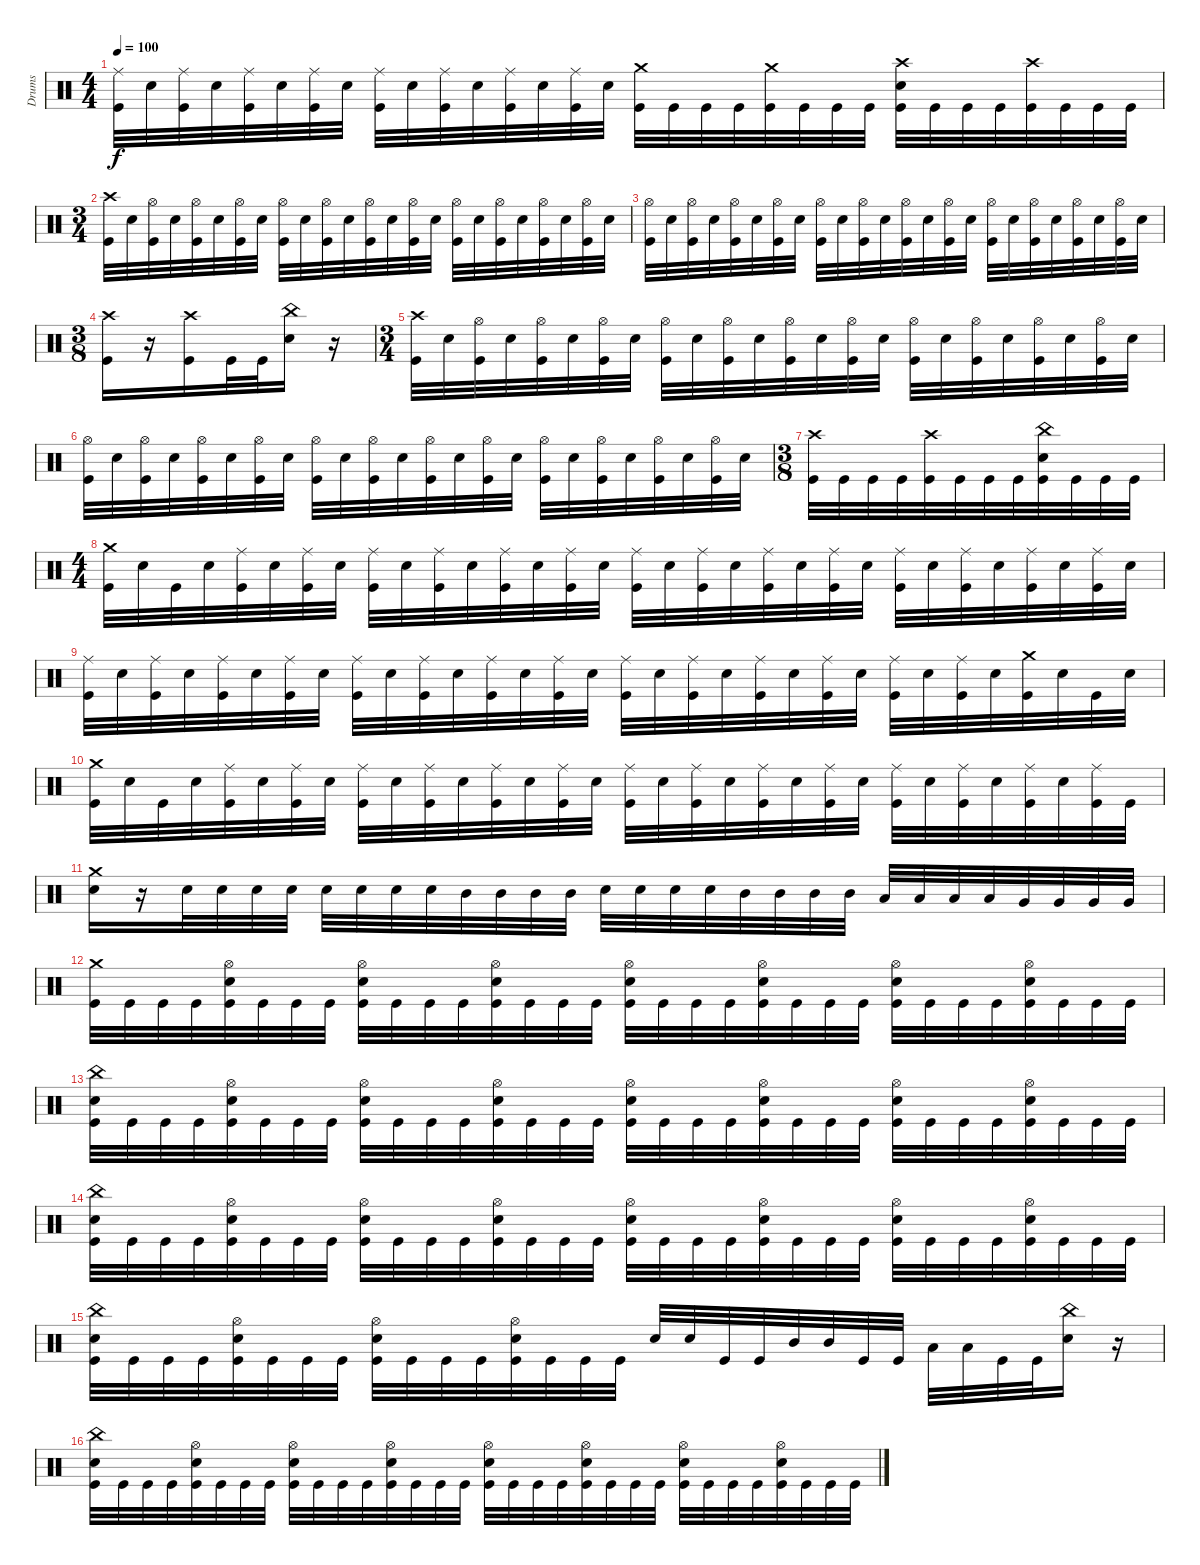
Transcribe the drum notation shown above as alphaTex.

\track ("Drums" "Drums") {instrument percussion}
\staff {score}
\articulation defaults
\ts (4 4)
\tempo 100
\clef neutral
\ks c
("Ride (middle)" "Kick (hit)").32{dy f} "Snare (hit) 2".32 ("Ride (middle)" "Kick (hit)").32 "Snare (hit) 2".32 ("Ride (middle)" "Kick (hit)").32 "Snare (hit) 2".32 ("Ride (middle)" "Kick (hit)").32 "Snare (hit) 2".32 ("Ride (middle)" "Kick (hit)").32 "Snare (hit) 2".32 ("Ride (middle)" "Kick (hit)").32 "Snare (hit) 2".32 ("Ride (middle)" "Kick (hit)").32 "Snare (hit) 2".32 ("Ride (middle)" "Kick (hit)").32 "Snare (hit) 2".32 ("Crash medium (hit)" "Kick (hit)").32 "Kick (hit)".32 "Kick (hit)".32 "Kick (hit)".32 ("Crash medium (hit)" "Kick (hit)").32 "Kick (hit)".32 "Kick (hit)".32 "Kick (hit)".32 ("Crash high (hit)" "Snare (hit) 2" "Kick (hit)").32 "Kick (hit)".32 "Kick (hit)".32 "Kick (hit)".32 ("Crash high (hit)" "Kick (hit)").32 "Kick (hit)".32 "Kick (hit)".32 "Kick (hit)".32 |
\ts (3 4)
("Crash high (hit)" "Kick (hit)").32 "Snare (hit) 2".32 ("Hi-Hat (open)" "Kick (hit)").32 "Snare (hit) 2".32 ("Hi-Hat (open)" "Kick (hit)").32 "Snare (hit) 2".32 ("Hi-Hat (open)" "Kick (hit)").32 "Snare (hit) 2".32 ("Hi-Hat (open)" "Kick (hit)").32 "Snare (hit) 2".32 ("Hi-Hat (open)" "Kick (hit)").32 "Snare (hit) 2".32 ("Hi-Hat (open)" "Kick (hit)").32 "Snare (hit) 2".32 ("Hi-Hat (open)" "Kick (hit)").32 "Snare (hit) 2".32 ("Hi-Hat (open)" "Kick (hit)").32 "Snare (hit) 2".32 ("Hi-Hat (open)" "Kick (hit)").32 "Snare (hit) 2".32 ("Hi-Hat (open)" "Kick (hit)").32 "Snare (hit) 2".32 ("Hi-Hat (open)" "Kick (hit)").32 "Snare (hit) 2".32 |
("Hi-Hat (open)" "Kick (hit)").32 "Snare (hit) 2".32 ("Hi-Hat (open)" "Kick (hit)").32 "Snare (hit) 2".32 ("Hi-Hat (open)" "Kick (hit)").32 "Snare (hit) 2".32 ("Hi-Hat (open)" "Kick (hit)").32 "Snare (hit) 2".32 ("Hi-Hat (open)" "Kick (hit)").32 "Snare (hit) 2".32 ("Hi-Hat (open)" "Kick (hit)").32 "Snare (hit) 2".32 ("Hi-Hat (open)" "Kick (hit)").32 "Snare (hit) 2".32 ("Hi-Hat (open)" "Kick (hit)").32 "Snare (hit) 2".32 ("Hi-Hat (open)" "Kick (hit)").32 "Snare (hit) 2".32 ("Hi-Hat (open)" "Kick (hit)").32 "Snare (hit) 2".32 ("Hi-Hat (open)" "Kick (hit)").32 "Snare (hit) 2".32 ("Hi-Hat (open)" "Kick (hit)").32 "Snare (hit) 2".32 |
\ts (3 8)
("Crash high (hit)" "Kick (hit)").16 r.16 ("Crash high (hit)" "Kick (hit)").16 "Kick (hit)".32 "Kick (hit)".32 ("China (hit)" "Snare (hit) 2").16 r.16 |
\ts (3 4)
("Crash high (hit)" "Kick (hit)").32 "Snare (hit) 2".32 ("Hi-Hat (open)" "Kick (hit)").32 "Snare (hit) 2".32 ("Hi-Hat (open)" "Kick (hit)").32 "Snare (hit) 2".32 ("Hi-Hat (open)" "Kick (hit)").32 "Snare (hit) 2".32 ("Hi-Hat (open)" "Kick (hit)").32 "Snare (hit) 2".32 ("Hi-Hat (open)" "Kick (hit)").32 "Snare (hit) 2".32 ("Hi-Hat (open)" "Kick (hit)").32 "Snare (hit) 2".32 ("Hi-Hat (open)" "Kick (hit)").32 "Snare (hit) 2".32 ("Hi-Hat (open)" "Kick (hit)").32 "Snare (hit) 2".32 ("Hi-Hat (open)" "Kick (hit)").32 "Snare (hit) 2".32 ("Hi-Hat (open)" "Kick (hit)").32 "Snare (hit) 2".32 ("Hi-Hat (open)" "Kick (hit)").32 "Snare (hit) 2".32 |
("Hi-Hat (open)" "Kick (hit)").32 "Snare (hit) 2".32 ("Hi-Hat (open)" "Kick (hit)").32 "Snare (hit) 2".32 ("Hi-Hat (open)" "Kick (hit)").32 "Snare (hit) 2".32 ("Hi-Hat (open)" "Kick (hit)").32 "Snare (hit) 2".32 ("Hi-Hat (open)" "Kick (hit)").32 "Snare (hit) 2".32 ("Hi-Hat (open)" "Kick (hit)").32 "Snare (hit) 2".32 ("Hi-Hat (open)" "Kick (hit)").32 "Snare (hit) 2".32 ("Hi-Hat (open)" "Kick (hit)").32 "Snare (hit) 2".32 ("Hi-Hat (open)" "Kick (hit)").32 "Snare (hit) 2".32 ("Hi-Hat (open)" "Kick (hit)").32 "Snare (hit) 2".32 ("Hi-Hat (open)" "Kick (hit)").32 "Snare (hit) 2".32 ("Hi-Hat (open)" "Kick (hit)").32 "Snare (hit) 2".32 |
\ts (3 8)
("Crash high (hit)" "Kick (hit)").32 "Kick (hit)".32 "Kick (hit)".32 "Kick (hit)".32 ("Crash high (hit)" "Kick (hit)").32 "Kick (hit)".32 "Kick (hit)".32 "Kick (hit)".32 ("China (hit)" "Snare (hit) 2" "Kick (hit)").32 "Kick (hit)".32 "Kick (hit)".32 "Kick (hit)".32 |
\ts (4 4)
("Crash medium (hit)" "Kick (hit)").32 "Snare (hit) 2".32 "Kick (hit)".32 "Snare (hit) 2".32 ("Ride (middle)" "Kick (hit)").32 "Snare (hit) 2".32 ("Ride (middle)" "Kick (hit)").32 "Snare (hit) 2".32 ("Ride (middle)" "Kick (hit)").32 "Snare (hit) 2".32 ("Ride (middle)" "Kick (hit)").32 "Snare (hit) 2".32 ("Ride (middle)" "Kick (hit)").32 "Snare (hit) 2".32 ("Ride (middle)" "Kick (hit)").32 "Snare (hit) 2".32 ("Ride (middle)" "Kick (hit)").32 "Snare (hit) 2".32 ("Ride (middle)" "Kick (hit)").32 "Snare (hit) 2".32 ("Ride (middle)" "Kick (hit)").32 "Snare (hit) 2".32 ("Ride (middle)" "Kick (hit)").32 "Snare (hit) 2".32 ("Ride (middle)" "Kick (hit)").32 "Snare (hit) 2".32 ("Ride (middle)" "Kick (hit)").32 "Snare (hit) 2".32 ("Ride (middle)" "Kick (hit)").32 "Snare (hit) 2".32 ("Ride (middle)" "Kick (hit)").32 "Snare (hit) 2".32 |
("Ride (middle)" "Kick (hit)").32 "Snare (hit) 2".32 ("Ride (middle)" "Kick (hit)").32 "Snare (hit) 2".32 ("Ride (middle)" "Kick (hit)").32 "Snare (hit) 2".32 ("Ride (middle)" "Kick (hit)").32 "Snare (hit) 2".32 ("Ride (middle)" "Kick (hit)").32 "Snare (hit) 2".32 ("Ride (middle)" "Kick (hit)").32 "Snare (hit) 2".32 ("Ride (middle)" "Kick (hit)").32 "Snare (hit) 2".32 ("Ride (middle)" "Kick (hit)").32 "Snare (hit) 2".32 ("Ride (middle)" "Kick (hit)").32 "Snare (hit) 2".32 ("Ride (middle)" "Kick (hit)").32 "Snare (hit) 2".32 ("Ride (middle)" "Kick (hit)").32 "Snare (hit) 2".32 ("Ride (middle)" "Kick (hit)").32 "Snare (hit) 2".32 ("Ride (middle)" "Kick (hit)").32 "Snare (hit) 2".32 ("Ride (middle)" "Kick (hit)").32 "Snare (hit) 2".32 ("Crash medium (hit)" "Kick (hit)").32 "Snare (hit) 2".32 "Kick (hit)".32 "Snare (hit) 2".32 |
("Crash medium (hit)" "Kick (hit)").32 "Snare (hit) 2".32 "Kick (hit)".32 "Snare (hit) 2".32 ("Ride (middle)" "Kick (hit)").32 "Snare (hit) 2".32 ("Ride (middle)" "Kick (hit)").32 "Snare (hit) 2".32 ("Ride (middle)" "Kick (hit)").32 "Snare (hit) 2".32 ("Ride (middle)" "Kick (hit)").32 "Snare (hit) 2".32 ("Ride (middle)" "Kick (hit)").32 "Snare (hit) 2".32 ("Ride (middle)" "Kick (hit)").32 "Snare (hit) 2".32 ("Ride (middle)" "Kick (hit)").32 "Snare (hit) 2".32 ("Ride (middle)" "Kick (hit)").32 "Snare (hit) 2".32 ("Ride (middle)" "Kick (hit)").32 "Snare (hit) 2".32 ("Ride (middle)" "Kick (hit)").32 "Snare (hit) 2".32 ("Ride (middle)" "Kick (hit)").32 "Snare (hit) 2".32 ("Ride (middle)" "Kick (hit)").32 "Snare (hit) 2".32 ("Ride (middle)" "Kick (hit)").32 "Snare (hit) 2".32 ("Ride (middle)" "Kick (hit)").32 "Kick (hit)".32 |
("Crash medium (hit)" "Snare (hit) 2").16 r.16 "Snare (hit) 2".32 "Snare (hit) 2".32 "Snare (hit) 2".32 "Snare (hit) 2".32 "Snare (hit) 2".32 "Snare (hit) 2".32 "Snare (hit) 2".32 "Snare (hit) 2".32 "Mid Tom (hit)".32 "Mid Tom (hit)".32 "Mid Tom (hit)".32 "Mid Tom (hit)".32 "Snare (hit) 2".32 "Snare (hit) 2".32 "Snare (hit) 2".32 "Snare (hit) 2".32 "Mid Tom (hit)".32 "Mid Tom (hit)".32 "Mid Tom (hit)".32 "Mid Tom (hit)".32 "Low Tom (hit)".32 "Low Tom (hit)".32 "Low Tom (hit)".32 "Low Tom (hit)".32 "Very Low Tom (hit)".32 "Very Low Tom (hit)".32 "Very Low Tom (hit)".32 "Very Low Tom (hit)".32 |
("Crash medium (hit)" "Kick (hit)").32 "Kick (hit)".32 "Kick (hit)".32 "Kick (hit)".32 ("Hi-Hat (open)" "Snare (hit) 2" "Kick (hit)").32 "Kick (hit)".32 "Kick (hit)".32 "Kick (hit)".32 ("Hi-Hat (open)" "Snare (hit) 2" "Kick (hit)").32 "Kick (hit)".32 "Kick (hit)".32 "Kick (hit)".32 ("Hi-Hat (open)" "Snare (hit) 2" "Kick (hit)").32 "Kick (hit)".32 "Kick (hit)".32 "Kick (hit)".32 ("Hi-Hat (open)" "Snare (hit) 2" "Kick (hit)").32 "Kick (hit)".32 "Kick (hit)".32 "Kick (hit)".32 ("Hi-Hat (open)" "Snare (hit) 2" "Kick (hit)").32 "Kick (hit)".32 "Kick (hit)".32 "Kick (hit)".32 ("Hi-Hat (open)" "Snare (hit) 2" "Kick (hit)").32 "Kick (hit)".32 "Kick (hit)".32 "Kick (hit)".32 ("Hi-Hat (open)" "Snare (hit) 2" "Kick (hit)").32 "Kick (hit)".32 "Kick (hit)".32 "Kick (hit)".32 |
("China (hit)" "Snare (hit) 2" "Kick (hit)").32 "Kick (hit)".32 "Kick (hit)".32 "Kick (hit)".32 ("Hi-Hat (open)" "Snare (hit) 2" "Kick (hit)").32 "Kick (hit)".32 "Kick (hit)".32 "Kick (hit)".32 ("Hi-Hat (open)" "Snare (hit) 2" "Kick (hit)").32 "Kick (hit)".32 "Kick (hit)".32 "Kick (hit)".32 ("Hi-Hat (open)" "Snare (hit) 2" "Kick (hit)").32 "Kick (hit)".32 "Kick (hit)".32 "Kick (hit)".32 ("Hi-Hat (open)" "Snare (hit) 2" "Kick (hit)").32 "Kick (hit)".32 "Kick (hit)".32 "Kick (hit)".32 ("Hi-Hat (open)" "Snare (hit) 2" "Kick (hit)").32 "Kick (hit)".32 "Kick (hit)".32 "Kick (hit)".32 ("Hi-Hat (open)" "Snare (hit) 2" "Kick (hit)").32 "Kick (hit)".32 "Kick (hit)".32 "Kick (hit)".32 ("Hi-Hat (open)" "Snare (hit) 2" "Kick (hit)").32 "Kick (hit)".32 "Kick (hit)".32 "Kick (hit)".32 |
("China (hit)" "Snare (hit) 2" "Kick (hit)").32 "Kick (hit)".32 "Kick (hit)".32 "Kick (hit)".32 ("Hi-Hat (open)" "Snare (hit) 2" "Kick (hit)").32 "Kick (hit)".32 "Kick (hit)".32 "Kick (hit)".32 ("Hi-Hat (open)" "Snare (hit) 2" "Kick (hit)").32 "Kick (hit)".32 "Kick (hit)".32 "Kick (hit)".32 ("Hi-Hat (open)" "Snare (hit) 2" "Kick (hit)").32 "Kick (hit)".32 "Kick (hit)".32 "Kick (hit)".32 ("Hi-Hat (open)" "Snare (hit) 2" "Kick (hit)").32 "Kick (hit)".32 "Kick (hit)".32 "Kick (hit)".32 ("Hi-Hat (open)" "Snare (hit) 2" "Kick (hit)").32 "Kick (hit)".32 "Kick (hit)".32 "Kick (hit)".32 ("Hi-Hat (open)" "Snare (hit) 2" "Kick (hit)").32 "Kick (hit)".32 "Kick (hit)".32 "Kick (hit)".32 ("Hi-Hat (open)" "Snare (hit) 2" "Kick (hit)").32 "Kick (hit)".32 "Kick (hit)".32 "Kick (hit)".32 |
("China (hit)" "Snare (hit) 2" "Kick (hit)").32 "Kick (hit)".32 "Kick (hit)".32 "Kick (hit)".32 ("Hi-Hat (open)" "Snare (hit) 2" "Kick (hit)").32 "Kick (hit)".32 "Kick (hit)".32 "Kick (hit)".32 ("Hi-Hat (open)" "Snare (hit) 2" "Kick (hit)").32 "Kick (hit)".32 "Kick (hit)".32 "Kick (hit)".32 ("Hi-Hat (open)" "Snare (hit) 2" "Kick (hit)").32 "Kick (hit)".32 "Kick (hit)".32 "Kick (hit)".32 "Snare (hit) 2".32 "Snare (hit) 2".32 "Kick (hit)".32 "Kick (hit)".32 "Mid Tom (hit)".32 "Mid Tom (hit)".32 "Kick (hit)".32 "Kick (hit)".32 "Low Tom (hit)".32 "Low Tom (hit)".32 "Kick (hit)".32 "Kick (hit)".32 ("China (hit)" "Snare (hit) 2").16 r.16 |
("China (hit)" "Snare (hit) 2" "Kick (hit)").32 "Kick (hit)".32 "Kick (hit)".32 "Kick (hit)".32 ("Hi-Hat (open)" "Snare (hit) 2" "Kick (hit)").32 "Kick (hit)".32 "Kick (hit)".32 "Kick (hit)".32 ("Hi-Hat (open)" "Snare (hit) 2" "Kick (hit)").32 "Kick (hit)".32 "Kick (hit)".32 "Kick (hit)".32 ("Hi-Hat (open)" "Snare (hit) 2" "Kick (hit)").32 "Kick (hit)".32 "Kick (hit)".32 "Kick (hit)".32 ("Hi-Hat (open)" "Snare (hit) 2" "Kick (hit)").32 "Kick (hit)".32 "Kick (hit)".32 "Kick (hit)".32 ("Hi-Hat (open)" "Snare (hit) 2" "Kick (hit)").32 "Kick (hit)".32 "Kick (hit)".32 "Kick (hit)".32 ("Hi-Hat (open)" "Snare (hit) 2" "Kick (hit)").32 "Kick (hit)".32 "Kick (hit)".32 "Kick (hit)".32 ("Hi-Hat (open)" "Snare (hit) 2" "Kick (hit)").32 "Kick (hit)".32 "Kick (hit)".32 "Kick (hit)".32
